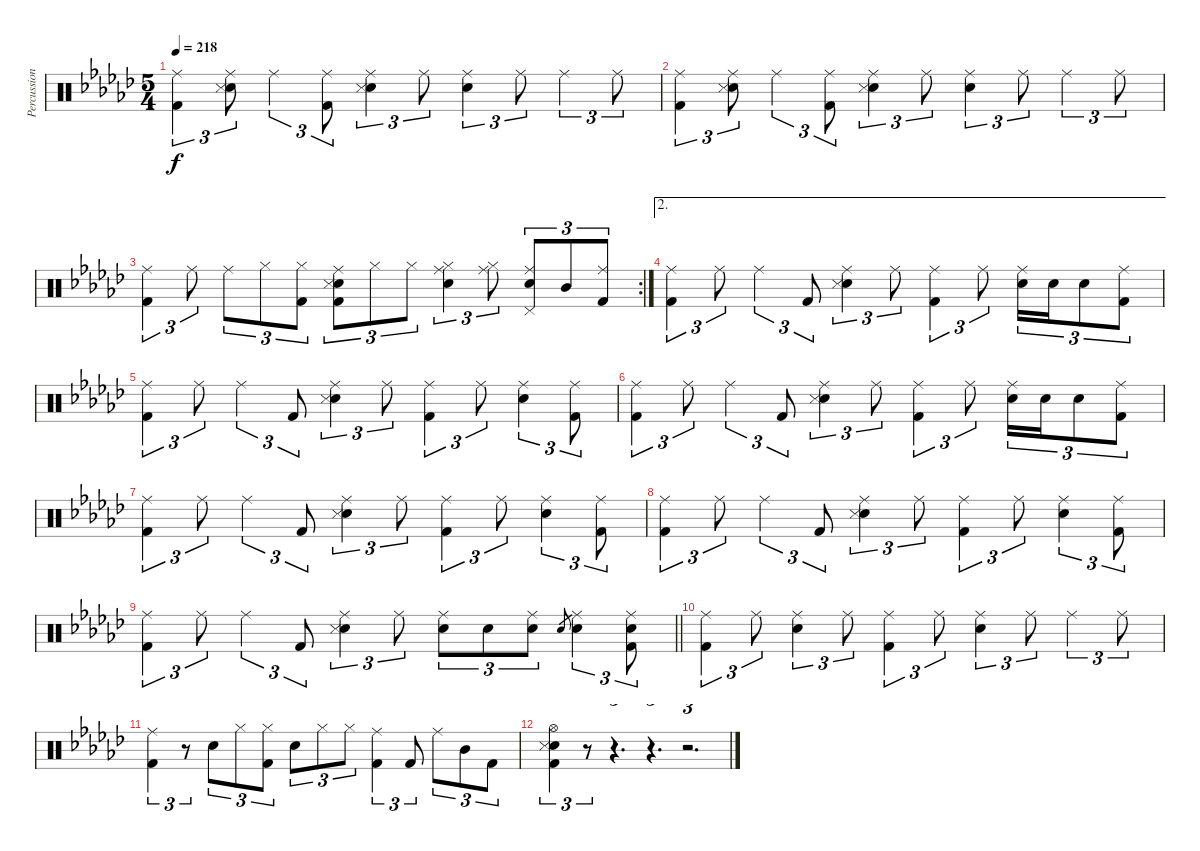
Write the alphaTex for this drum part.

\track ("Percussions" "Percussion") {instrument percussion}
\staff {score}
\articulation defaults
\ts (5 4)
\tempo 218
\clef neutral
\ks ebminor
("Ride (middle)" "Kick (hit) 2").4{tu (3 2) dy f} ("Ride (middle)" "Snare (hit) 2" "Snare (side stick) 3").8{tu (3 2)} "Ride (middle)".4{tu (3 2)} ("Ride (middle)" "Kick (hit) 2").8{tu (3 2)} ("Ride (middle)" "Snare (hit) 2" "Snare (side stick) 3").4{tu (3 2)} "Ride (middle)".8{tu (3 2)} ("Ride (middle)" "Snare (hit) 2").4{tu (3 2)} "Ride (middle)".8{tu (3 2)} "Ride (middle)".4{tu (3 2)} "Ride (middle)".8{tu (3 2)} |
("Ride (middle)" "Kick (hit) 2").4{tu (3 2)} ("Ride (middle)" "Snare (hit) 2" "Snare (side stick) 3").8{tu (3 2)} "Ride (middle)".4{tu (3 2)} ("Ride (middle)" "Kick (hit) 2").8{tu (3 2)} ("Ride (middle)" "Snare (hit) 2" "Snare (side stick) 3").4{tu (3 2)} "Ride (middle)".8{tu (3 2)} ("Ride (middle)" "Snare (hit) 2").4{tu (3 2)} "Ride (middle)".8{tu (3 2)} "Ride (middle)".4{tu (3 2)} "Ride (middle)".8{tu (3 2)} |
\rc 2
("Ride (middle)" "Kick (hit) 2").4{tu (3 2)} "Ride (middle)".8{tu (3 2)} "Ride (middle)".8{tu (3 2)} "Hi-Hat (closed)".8{tu (3 2)} ("Hi-Hat (closed)" "Kick (hit) 2").8{tu (3 2)} ("Ride (middle)" "Snare (hit) 2" "Snare (side stick) 3" "Kick (hit) 2").8{tu (3 2)} "Hi-Hat (closed)".8{tu (3 2)} "Hi-Hat (closed)".8{tu (3 2)} ("Ride (middle)" "Hi-Hat (closed)" "Snare (hit) 2").4{tu (3 2)} ("Ride (middle)" "Hi-Hat (closed)").8{tu (3 2)} ("Ride (middle)" "Pedal Hi-Hat (hit)" "Snare (hit) 2").8{tu (3 2)} "Mid Tom (hit)".8{tu (3 2)} ("Ride (middle)" "Kick (hit) 2").8{tu (3 2)} |
\ae 2
("Ride (middle)" "Kick (hit) 2").4{tu (3 2) volume 12 balance 8} "Ride (middle)".8{tu (3 2)} "Ride (middle)".4{tu (3 2)} "Kick (hit) 2".8{tu (3 2)} ("Ride (middle)" "Snare (hit) 2" "Snare (side stick) 3").4{tu (3 2)} "Ride (middle)".8{tu (3 2)} ("Ride (middle)" "Kick (hit) 2").4{tu (3 2)} "Ride (middle)".8{tu (3 2)} ("Ride (middle)" "Snare (hit) 2").16{tu (3 2)} "Snare (hit) 2".16{tu (3 2)} "Snare (hit) 2".8{tu (3 2)} ("Ride (middle)" "Kick (hit) 2").8{tu (3 2)} |
("Ride (middle)" "Kick (hit) 2").4{tu (3 2)} "Ride (middle)".8{tu (3 2)} "Ride (middle)".4{tu (3 2)} "Kick (hit) 2".8{tu (3 2)} ("Ride (middle)" "Snare (hit) 2" "Snare (side stick) 3").4{tu (3 2)} "Ride (middle)".8{tu (3 2)} ("Ride (middle)" "Kick (hit) 2").4{tu (3 2)} "Ride (middle)".8{tu (3 2)} ("Ride (middle)" "Snare (hit) 2").4{tu (3 2)} ("Ride (middle)" "Kick (hit) 2").8{tu (3 2)} |
("Ride (middle)" "Kick (hit) 2").4{tu (3 2)} "Ride (middle)".8{tu (3 2)} "Ride (middle)".4{tu (3 2)} "Kick (hit) 2".8{tu (3 2)} ("Ride (middle)" "Snare (hit) 2" "Snare (side stick) 3").4{tu (3 2)} "Ride (middle)".8{tu (3 2)} ("Ride (middle)" "Kick (hit) 2").4{tu (3 2)} "Ride (middle)".8{tu (3 2)} ("Ride (middle)" "Snare (hit) 2").16{tu (3 2)} "Snare (hit) 2".16{tu (3 2)} "Snare (hit) 2".8{tu (3 2)} ("Ride (middle)" "Kick (hit) 2").8{tu (3 2)} |
("Ride (middle)" "Kick (hit) 2").4{tu (3 2) volume 12 balance 8} "Ride (middle)".8{tu (3 2)} "Ride (middle)".4{tu (3 2)} "Kick (hit) 2".8{tu (3 2)} ("Ride (middle)" "Snare (hit) 2" "Snare (side stick) 3").4{tu (3 2)} "Ride (middle)".8{tu (3 2)} ("Ride (middle)" "Kick (hit) 2").4{tu (3 2)} "Ride (middle)".8{tu (3 2)} ("Ride (middle)" "Snare (hit) 2").4{tu (3 2)} ("Ride (middle)" "Kick (hit) 2").8{tu (3 2)} |
("Ride (middle)" "Kick (hit) 2").4{tu (3 2)} "Ride (middle)".8{tu (3 2)} "Ride (middle)".4{tu (3 2)} "Kick (hit) 2".8{tu (3 2)} ("Ride (middle)" "Snare (hit) 2" "Snare (side stick) 3").4{tu (3 2)} "Ride (middle)".8{tu (3 2)} ("Ride (middle)" "Kick (hit) 2").4{tu (3 2)} "Ride (middle)".8{tu (3 2)} ("Ride (middle)" "Snare (hit) 2").4{tu (3 2)} ("Ride (middle)" "Kick (hit) 2").8{tu (3 2)} |
\barLineRight lightlight
("Ride (middle)" "Kick (hit) 2").4{tu (3 2)} "Ride (middle)".8{tu (3 2)} "Ride (middle)".4{tu (3 2)} "Kick (hit) 2".8{tu (3 2)} ("Ride (middle)" "Snare (hit) 2" "Snare (side stick) 3").4{tu (3 2)} "Ride (middle)".8{tu (3 2)} ("Ride (middle)" "Snare (hit) 2").8{tu (3 2)} "Snare (hit) 2".8{tu (3 2)} ("Ride (middle)" "Snare (hit) 2").8{tu (3 2)} "Snare (hit) 2".8{gr} ("Ride (middle)" "Snare (hit) 2").4{tu (3 2)} ("Ride (middle)" "Snare (hit) 2" "Kick (hit) 2").8{tu (3 2)} |
("Ride (middle)" "Kick (hit) 2").4{tu (3 2)} "Ride (middle)".8{tu (3 2)} ("Ride (middle)" "Snare (hit) 2").4{tu (3 2)} "Ride (middle)".8{tu (3 2)} ("Ride (middle)" "Kick (hit) 2").4{tu (3 2)} "Ride (middle)".8{tu (3 2)} ("Ride (middle)" "Snare (hit) 2").4{tu (3 2)} "Ride (middle)".8{tu (3 2)} "Ride (middle)".4{tu (3 2)} "Ride (middle)".8{tu (3 2)} |
("Ride (middle)" "Kick (hit) 2").4{tu (3 2)} r.8{tu (3 2)} "Snare (hit) 2".8{tu (3 2)} "Hi-Hat (closed)".8{tu (3 2)} ("Hi-Hat (closed)" "Kick (hit) 2").8{tu (3 2)} "Snare (hit) 2".8{tu (3 2)} "Hi-Hat (closed)".8{tu (3 2)} "Hi-Hat (closed)".8{tu (3 2)} ("Ride (middle)" "Kick (hit) 2").4{tu (3 2)} "Kick (hit) 2".8{tu (3 2)} "Ride (middle)".8{tu (3 2)} "Mid Tom (hit)".8{tu (3 2)} "Kick (hit) 2".8{tu (3 2)} |
("Hi-Hat (open)" "Snare (hit) 2" "Snare (side stick) 3" "Kick (hit) 2").4{tu (3 2) volume 13 balance 8} r.8{tu (3 2)} r.4{d tu (3 2)} r.4{d tu (3 2)} r.2{d tu (3 2)}
